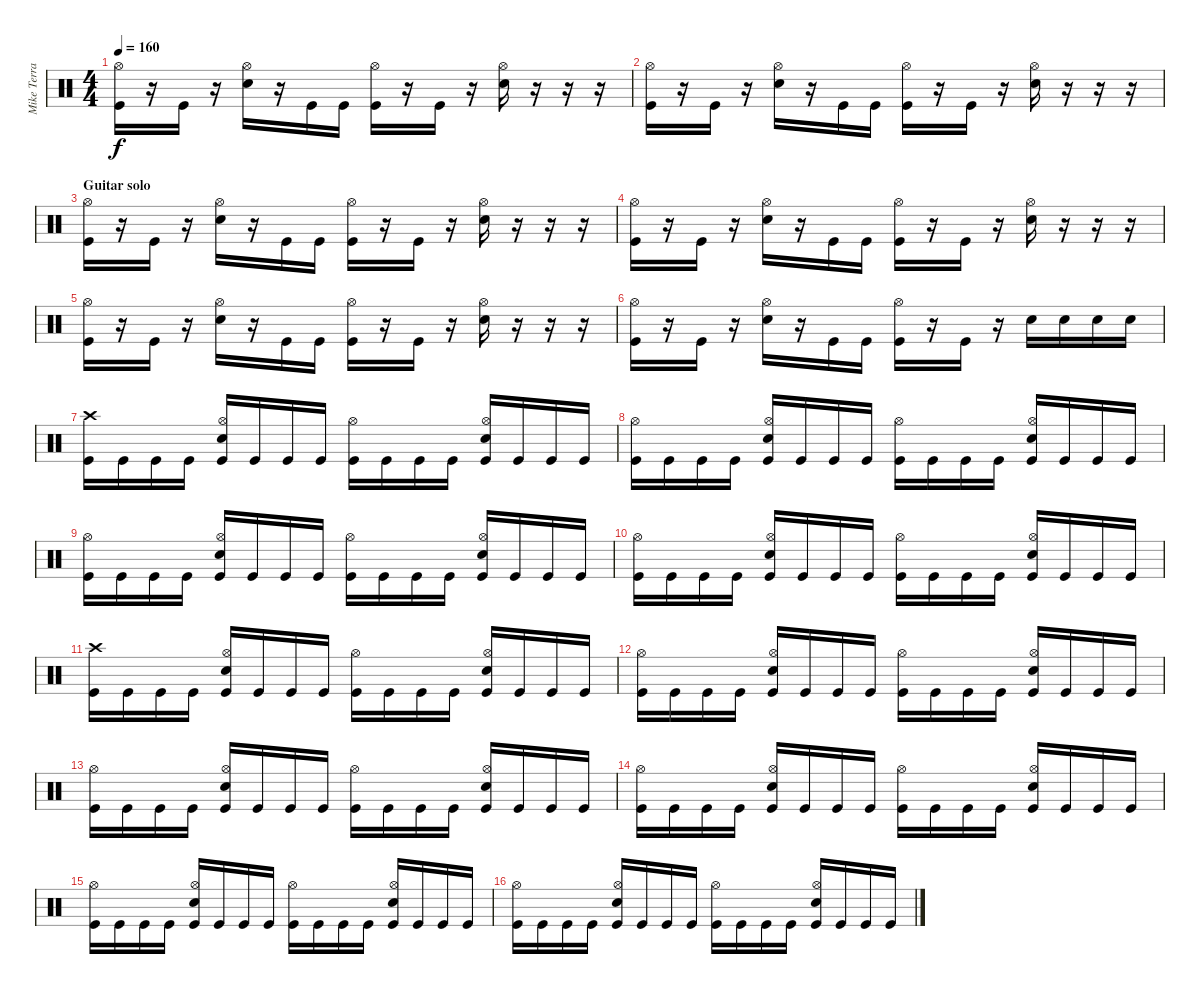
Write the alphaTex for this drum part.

\track ("Mike Terrana - Drums" "Mike Terra") {instrument percussion}
\staff {score}
\articulation defaults
\ts (4 4)
\tempo 160
\clef neutral
\ks c
("Kick (hit)" "Hi-Hat (open)").16{dy f} r.16 "Kick (hit)".16 r.16 ("Electric Snare (hit)" "Hi-Hat (open)").16 r.16 "Kick (hit)".16 "Kick (hit)".16 ("Kick (hit)" "Hi-Hat (open)").16 r.16 "Kick (hit)".16 r.16 ("Electric Snare (hit)" "Hi-Hat (open)").16 r.16 r.16 r.16 |
("Kick (hit)" "Hi-Hat (open)").16 r.16 "Kick (hit)".16 r.16 ("Electric Snare (hit)" "Hi-Hat (open)").16 r.16 "Kick (hit)".16 "Kick (hit)".16 ("Kick (hit)" "Hi-Hat (open)").16 r.16 "Kick (hit)".16 r.16 ("Electric Snare (hit)" "Hi-Hat (open)").16 r.16 r.16 r.16 |
\section ("" "Guitar solo")
("Kick (hit)" "Hi-Hat (open)").16 r.16 "Kick (hit)".16 r.16 ("Electric Snare (hit)" "Hi-Hat (open)").16 r.16 "Kick (hit)".16 "Kick (hit)".16 ("Kick (hit)" "Hi-Hat (open)").16 r.16 "Kick (hit)".16 r.16 ("Electric Snare (hit)" "Hi-Hat (open)").16 r.16 r.16 r.16 |
("Kick (hit)" "Hi-Hat (open)").16 r.16 "Kick (hit)".16 r.16 ("Electric Snare (hit)" "Hi-Hat (open)").16 r.16 "Kick (hit)".16 "Kick (hit)".16 ("Kick (hit)" "Hi-Hat (open)").16 r.16 "Kick (hit)".16 r.16 ("Electric Snare (hit)" "Hi-Hat (open)").16 r.16 r.16 r.16 |
("Kick (hit)" "Hi-Hat (open)").16 r.16 "Kick (hit)".16 r.16 ("Electric Snare (hit)" "Hi-Hat (open)").16 r.16 "Kick (hit)".16 "Kick (hit)".16 ("Kick (hit)" "Hi-Hat (open)").16 r.16 "Kick (hit)".16 r.16 ("Electric Snare (hit)" "Hi-Hat (open)").16 r.16 r.16 r.16 |
("Kick (hit)" "Hi-Hat (open)").16 r.16 "Kick (hit)".16 r.16 ("Electric Snare (hit)" "Hi-Hat (open)").16 r.16 "Kick (hit)".16 "Kick (hit)".16 ("Kick (hit)" "Hi-Hat (open)").16 r.16 "Kick (hit)".16 r.16 "Electric Snare (hit)".16 "Electric Snare (hit)".16 "Electric Snare (hit)".16 "Electric Snare (hit)".16 |
("Kick (hit)" "Crash high (hit)").16 "Kick (hit)".16 "Kick (hit)".16 "Kick (hit)".16 ("Kick (hit)" "Electric Snare (hit)" "Hi-Hat (open)").16 "Kick (hit)".16 "Kick (hit)".16 "Kick (hit)".16 ("Kick (hit)" "Hi-Hat (open)").16 "Kick (hit)".16 "Kick (hit)".16 "Kick (hit)".16 ("Kick (hit)" "Electric Snare (hit)" "Hi-Hat (open)").16 "Kick (hit)".16 "Kick (hit)".16 "Kick (hit)".16 |
("Kick (hit)" "Hi-Hat (open)").16 "Kick (hit)".16 "Kick (hit)".16 "Kick (hit)".16 ("Kick (hit)" "Electric Snare (hit)" "Hi-Hat (open)").16 "Kick (hit)".16 "Kick (hit)".16 "Kick (hit)".16 ("Kick (hit)" "Hi-Hat (open)").16 "Kick (hit)".16 "Kick (hit)".16 "Kick (hit)".16 ("Kick (hit)" "Electric Snare (hit)" "Hi-Hat (open)").16 "Kick (hit)".16 "Kick (hit)".16 "Kick (hit)".16 |
("Kick (hit)" "Hi-Hat (open)").16 "Kick (hit)".16 "Kick (hit)".16 "Kick (hit)".16 ("Kick (hit)" "Electric Snare (hit)" "Hi-Hat (open)").16 "Kick (hit)".16 "Kick (hit)".16 "Kick (hit)".16 ("Kick (hit)" "Hi-Hat (open)").16 "Kick (hit)".16 "Kick (hit)".16 "Kick (hit)".16 ("Kick (hit)" "Electric Snare (hit)" "Hi-Hat (open)").16 "Kick (hit)".16 "Kick (hit)".16 "Kick (hit)".16 |
("Kick (hit)" "Hi-Hat (open)").16 "Kick (hit)".16 "Kick (hit)".16 "Kick (hit)".16 ("Kick (hit)" "Electric Snare (hit)" "Hi-Hat (open)").16 "Kick (hit)".16 "Kick (hit)".16 "Kick (hit)".16 ("Kick (hit)" "Hi-Hat (open)").16 "Kick (hit)".16 "Kick (hit)".16 "Kick (hit)".16 ("Kick (hit)" "Electric Snare (hit)" "Hi-Hat (open)").16 "Kick (hit)".16 "Kick (hit)".16 "Kick (hit)".16 |
("Kick (hit)" "Crash high (hit)").16 "Kick (hit)".16 "Kick (hit)".16 "Kick (hit)".16 ("Kick (hit)" "Electric Snare (hit)" "Hi-Hat (open)").16 "Kick (hit)".16 "Kick (hit)".16 "Kick (hit)".16 ("Kick (hit)" "Hi-Hat (open)").16 "Kick (hit)".16 "Kick (hit)".16 "Kick (hit)".16 ("Kick (hit)" "Electric Snare (hit)" "Hi-Hat (open)").16 "Kick (hit)".16 "Kick (hit)".16 "Kick (hit)".16 |
("Kick (hit)" "Hi-Hat (open)").16 "Kick (hit)".16 "Kick (hit)".16 "Kick (hit)".16 ("Kick (hit)" "Electric Snare (hit)" "Hi-Hat (open)").16 "Kick (hit)".16 "Kick (hit)".16 "Kick (hit)".16 ("Kick (hit)" "Hi-Hat (open)").16 "Kick (hit)".16 "Kick (hit)".16 "Kick (hit)".16 ("Kick (hit)" "Electric Snare (hit)" "Hi-Hat (open)").16 "Kick (hit)".16 "Kick (hit)".16 "Kick (hit)".16 |
("Kick (hit)" "Hi-Hat (open)").16 "Kick (hit)".16 "Kick (hit)".16 "Kick (hit)".16 ("Kick (hit)" "Electric Snare (hit)" "Hi-Hat (open)").16 "Kick (hit)".16 "Kick (hit)".16 "Kick (hit)".16 ("Kick (hit)" "Hi-Hat (open)").16 "Kick (hit)".16 "Kick (hit)".16 "Kick (hit)".16 ("Kick (hit)" "Electric Snare (hit)" "Hi-Hat (open)").16 "Kick (hit)".16 "Kick (hit)".16 "Kick (hit)".16 |
("Kick (hit)" "Hi-Hat (open)").16 "Kick (hit)".16 "Kick (hit)".16 "Kick (hit)".16 ("Kick (hit)" "Electric Snare (hit)" "Hi-Hat (open)").16 "Kick (hit)".16 "Kick (hit)".16 "Kick (hit)".16 ("Kick (hit)" "Hi-Hat (open)").16 "Kick (hit)".16 "Kick (hit)".16 "Kick (hit)".16 ("Kick (hit)" "Electric Snare (hit)" "Hi-Hat (open)").16 "Kick (hit)".16 "Kick (hit)".16 "Kick (hit)".16 |
("Kick (hit)" "Hi-Hat (open)").16 "Kick (hit)".16 "Kick (hit)".16 "Kick (hit)".16 ("Kick (hit)" "Electric Snare (hit)" "Hi-Hat (open)").16 "Kick (hit)".16 "Kick (hit)".16 "Kick (hit)".16 ("Kick (hit)" "Hi-Hat (open)").16 "Kick (hit)".16 "Kick (hit)".16 "Kick (hit)".16 ("Kick (hit)" "Electric Snare (hit)" "Hi-Hat (open)").16 "Kick (hit)".16 "Kick (hit)".16 "Kick (hit)".16 |
("Kick (hit)" "Hi-Hat (open)").16 "Kick (hit)".16 "Kick (hit)".16 "Kick (hit)".16 ("Kick (hit)" "Electric Snare (hit)" "Hi-Hat (open)").16 "Kick (hit)".16 "Kick (hit)".16 "Kick (hit)".16 ("Kick (hit)" "Hi-Hat (open)").16 "Kick (hit)".16 "Kick (hit)".16 "Kick (hit)".16 ("Kick (hit)" "Electric Snare (hit)" "Hi-Hat (open)").16 "Kick (hit)".16 "Kick (hit)".16 "Kick (hit)".16
